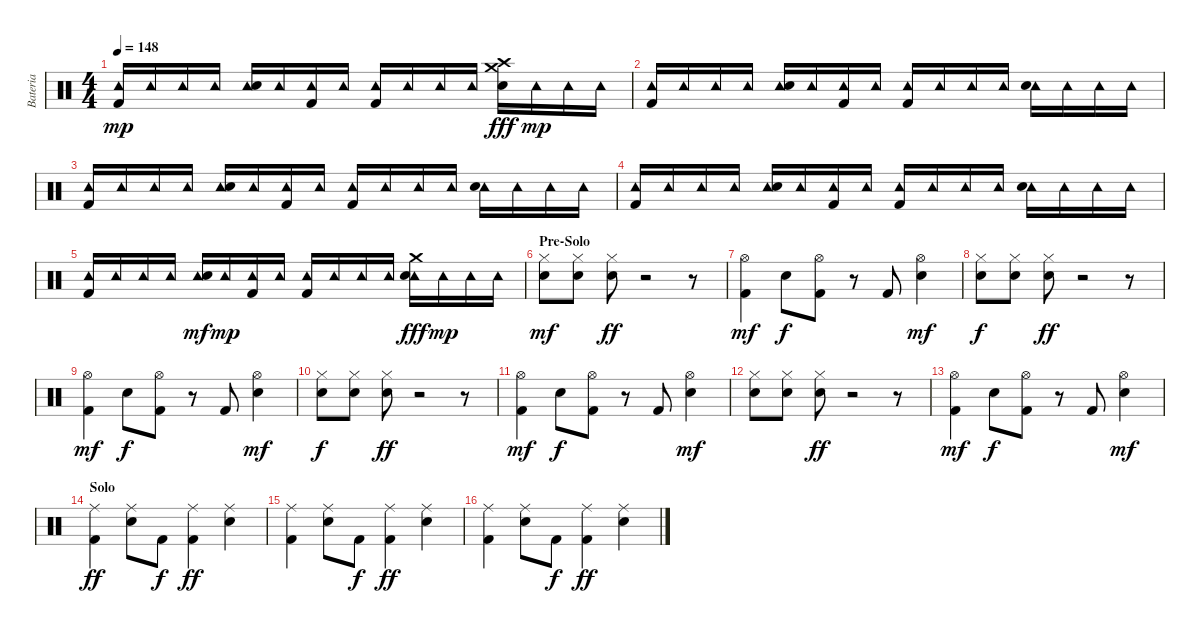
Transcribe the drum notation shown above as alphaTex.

\track ("Bateria" "Bateria") {instrument percussion}
\staff {score}
\articulation defaults
\ts (4 4)
\tempo 148
\clef neutral
\ks c
("Tambourine (hit)" "Kick (hit) 2").16{dy mp} "Tambourine (hit)".16 "Tambourine (hit)".16 "Tambourine (hit)".16 ("Tambourine (hit)" "Snare (hit) 2").16 "Tambourine (hit)".16 ("Tambourine (hit)" "Kick (hit) 2").16 "Tambourine (hit)".16 ("Tambourine (hit)" "Kick (hit) 2").16 "Tambourine (hit)".16 "Tambourine (hit)".16 "Tambourine (hit)".16 ("Crash high (hit)" "Crash medium (hit)" "Snare (hit) 2").16{dy fff} "Tambourine (hit)".16{dy mp} "Tambourine (hit)".16 "Tambourine (hit)".16 |
("Tambourine (hit)" "Kick (hit) 2").16 "Tambourine (hit)".16 "Tambourine (hit)".16 "Tambourine (hit)".16 ("Tambourine (hit)" "Snare (hit) 2").16 "Tambourine (hit)".16 ("Tambourine (hit)" "Kick (hit) 2").16 "Tambourine (hit)".16 ("Tambourine (hit)" "Kick (hit) 2").16 "Tambourine (hit)".16 "Tambourine (hit)".16 "Tambourine (hit)".16 ("Tambourine (hit)" "Snare (hit) 2").16 "Tambourine (hit)".16 "Tambourine (hit)".16 "Tambourine (hit)".16 |
("Tambourine (hit)" "Kick (hit) 2").16 "Tambourine (hit)".16 "Tambourine (hit)".16 "Tambourine (hit)".16 ("Tambourine (hit)" "Snare (hit) 2").16 "Tambourine (hit)".16 ("Tambourine (hit)" "Kick (hit) 2").16 "Tambourine (hit)".16 ("Tambourine (hit)" "Kick (hit) 2").16 "Tambourine (hit)".16 "Tambourine (hit)".16 "Tambourine (hit)".16 ("Tambourine (hit)" "Snare (hit) 2").16 "Tambourine (hit)".16 "Tambourine (hit)".16 "Tambourine (hit)".16 |
("Tambourine (hit)" "Kick (hit) 2").16 "Tambourine (hit)".16 "Tambourine (hit)".16 "Tambourine (hit)".16 ("Tambourine (hit)" "Snare (hit) 2").16 "Tambourine (hit)".16 ("Tambourine (hit)" "Kick (hit) 2").16 "Tambourine (hit)".16 ("Tambourine (hit)" "Kick (hit) 2").16 "Tambourine (hit)".16 "Tambourine (hit)".16 "Tambourine (hit)".16 ("Tambourine (hit)" "Snare (hit) 2").16 "Tambourine (hit)".16 "Tambourine (hit)".16 "Tambourine (hit)".16 |
("Tambourine (hit)" "Kick (hit) 2").16 "Tambourine (hit)".16 "Tambourine (hit)".16 "Tambourine (hit)".16 ("Tambourine (hit)" "Snare (hit) 2").16{dy mf} "Tambourine (hit)".16{dy mp} ("Tambourine (hit)" "Kick (hit) 2").16 "Tambourine (hit)".16 ("Tambourine (hit)" "Kick (hit) 2").16 "Tambourine (hit)".16 "Tambourine (hit)".16 "Tambourine (hit)".16 ("Tambourine (hit)" "Crash medium (hit)" "Snare (hit) 2").16{dy fff} "Tambourine (hit)".16{dy mp} "Tambourine (hit)".16 "Tambourine (hit)".16 |
\section ("" "Pre-Solo")
("Hi-Hat (closed)" "Snare (hit) 2").8{dy mf} ("Hi-Hat (closed)" "Snare (hit) 2").8 ("Hi-Hat (closed)" "Snare (hit) 2").8{dy ff} r.2 r.8 |
("Hi-Hat (open)" "Kick (hit) 2").4{dy mf} "Snare (hit) 2".8{dy f} ("Hi-Hat (open)" "Kick (hit) 2").8 r.8 "Kick (hit) 2".8 ("Hi-Hat (open)" "Snare (hit) 2").4{dy mf} |
("Hi-Hat (closed)" "Snare (hit) 2").8{dy f} ("Hi-Hat (closed)" "Snare (hit) 2").8 ("Hi-Hat (closed)" "Snare (hit) 2").8{dy ff} r.2 r.8 |
("Hi-Hat (open)" "Kick (hit) 2").4{dy mf} "Snare (hit) 2".8{dy f} ("Hi-Hat (open)" "Kick (hit) 2").8 r.8 "Kick (hit) 2".8 ("Hi-Hat (open)" "Snare (hit) 2").4{dy mf} |
("Hi-Hat (closed)" "Snare (hit) 2").8{dy f} ("Hi-Hat (closed)" "Snare (hit) 2").8 ("Hi-Hat (closed)" "Snare (hit) 2").8{dy ff} r.2 r.8 |
("Hi-Hat (open)" "Kick (hit) 2").4{dy mf} "Snare (hit) 2".8{dy f} ("Hi-Hat (open)" "Kick (hit) 2").8 r.8 "Kick (hit) 2".8 ("Hi-Hat (open)" "Snare (hit) 2").4{dy mf} |
("Hi-Hat (closed)" "Snare (hit) 2").8 ("Hi-Hat (closed)" "Snare (hit) 2").8 ("Hi-Hat (closed)" "Snare (hit) 2").8{dy ff} r.2 r.8 |
("Hi-Hat (open)" "Kick (hit) 2").4{dy mf} "Snare (hit) 2".8{dy f} ("Hi-Hat (open)" "Kick (hit) 2").8 r.8 "Kick (hit) 2".8 ("Hi-Hat (open)" "Snare (hit) 2").4{dy mf} |
\section ("" "Solo")
("Ride (middle)" "Kick (hit) 2").4{dy ff} ("Ride (middle)" "Snare (hit) 2").8 "Kick (hit) 2".8{dy f} ("Ride (middle)" "Kick (hit) 2").4{dy ff} ("Ride (middle)" "Snare (hit) 2").4 |
("Ride (middle)" "Kick (hit) 2").4 ("Ride (middle)" "Snare (hit) 2").8 "Kick (hit) 2".8{dy f} ("Ride (middle)" "Kick (hit) 2").4{dy ff} ("Ride (middle)" "Snare (hit) 2").4 |
("Ride (middle)" "Kick (hit) 2").4 ("Ride (middle)" "Snare (hit) 2").8 "Kick (hit) 2".8{dy f} ("Ride (middle)" "Kick (hit) 2").4{dy ff} ("Ride (middle)" "Snare (hit) 2").4
